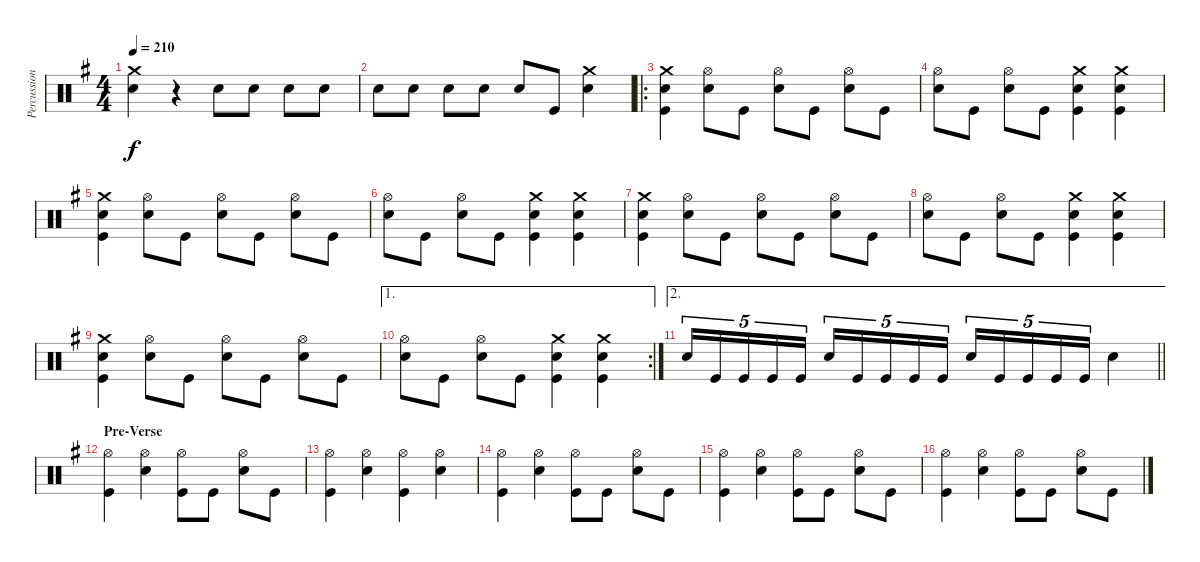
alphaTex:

\track ("Percussion" "Percussion") {instrument percussion}
\staff {score}
\articulation defaults
\ts (4 4)
\tempo 210
\clef neutral
\ks g
("Crash medium (hit)" "Snare (hit) 2").4{dy f} r.4 "Snare (hit) 2".8 "Snare (hit) 2".8 "Snare (hit) 2".8 "Snare (hit) 2".8 |
"Snare (hit) 2".8 "Snare (hit) 2".8 "Snare (hit) 2".8 "Snare (hit) 2".8 "Snare (hit) 2".8 "Kick (hit)".8 ("Crash medium (hit)" "Snare (hit) 2").4 |
\ro
("Crash medium (hit)" "Snare (hit) 2" "Kick (hit)").4 ("Hi-Hat (open)" "Snare (hit) 2").8 "Kick (hit)".8 ("Hi-Hat (open)" "Snare (hit) 2").8 "Kick (hit)".8 ("Hi-Hat (open)" "Snare (hit) 2").8 "Kick (hit)".8 |
("Hi-Hat (open)" "Snare (hit) 2").8 "Kick (hit)".8 ("Hi-Hat (open)" "Snare (hit) 2").8 "Kick (hit)".8 ("Crash medium (hit)" "Snare (hit) 2" "Kick (hit)").4 ("Crash medium (hit)" "Snare (hit) 2" "Kick (hit)").4 |
("Crash medium (hit)" "Snare (hit) 2" "Kick (hit)").4 ("Hi-Hat (open)" "Snare (hit) 2").8 "Kick (hit)".8 ("Hi-Hat (open)" "Snare (hit) 2").8 "Kick (hit)".8 ("Hi-Hat (open)" "Snare (hit) 2").8 "Kick (hit)".8 |
("Hi-Hat (open)" "Snare (hit) 2").8 "Kick (hit)".8 ("Hi-Hat (open)" "Snare (hit) 2").8 "Kick (hit)".8 ("Crash medium (hit)" "Snare (hit) 2" "Kick (hit)").4 ("Crash medium (hit)" "Snare (hit) 2" "Kick (hit)").4 |
("Crash medium (hit)" "Snare (hit) 2" "Kick (hit)").4 ("Hi-Hat (open)" "Snare (hit) 2").8 "Kick (hit)".8 ("Hi-Hat (open)" "Snare (hit) 2").8 "Kick (hit)".8 ("Hi-Hat (open)" "Snare (hit) 2").8 "Kick (hit)".8 |
("Hi-Hat (open)" "Snare (hit) 2").8 "Kick (hit)".8 ("Hi-Hat (open)" "Snare (hit) 2").8 "Kick (hit)".8 ("Crash medium (hit)" "Snare (hit) 2" "Kick (hit)").4 ("Crash medium (hit)" "Snare (hit) 2" "Kick (hit)").4 |
("Crash medium (hit)" "Snare (hit) 2" "Kick (hit)").4 ("Hi-Hat (open)" "Snare (hit) 2").8 "Kick (hit)".8 ("Hi-Hat (open)" "Snare (hit) 2").8 "Kick (hit)".8 ("Hi-Hat (open)" "Snare (hit) 2").8 "Kick (hit)".8 |
\ae 1
\rc 2
("Hi-Hat (open)" "Snare (hit) 2").8 "Kick (hit)".8 ("Hi-Hat (open)" "Snare (hit) 2").8 "Kick (hit)".8 ("Crash medium (hit)" "Snare (hit) 2" "Kick (hit)").4 ("Crash medium (hit)" "Snare (hit) 2" "Kick (hit)").4 |
\ae 2
\barLineRight lightlight "Snare (hit) 2".16{tu (5 4)} "Kick (hit)".16{tu (5 4)} "Kick (hit)".16{tu (5 4)} "Kick (hit)".16{tu (5 4)} "Kick (hit)".16{tu (5 4)} "Snare (hit) 2".16{tu (5 4)} "Kick (hit)".16{tu (5 4)} "Kick (hit)".16{tu (5 4)} "Kick (hit)".16{tu (5 4)} "Kick (hit)".16{tu (5 4)} "Snare (hit) 2".16{tu (5 4)} "Kick (hit)".16{tu (5 4)} "Kick (hit)".16{tu (5 4)} "Kick (hit)".16{tu (5 4)} "Kick (hit)".16{tu (5 4)} "Snare (hit) 2".4
|
\section ("" "Pre-Verse")
("Hi-Hat (open)" "Kick (hit)").4 ("Hi-Hat (open)" "Snare (hit) 2").4 ("Hi-Hat (open)" "Kick (hit)").8 "Kick (hit)".8 ("Hi-Hat (open)" "Snare (hit) 2").8 "Kick (hit)".8 |
("Hi-Hat (open)" "Kick (hit)").4 ("Hi-Hat (open)" "Snare (hit) 2").4 ("Hi-Hat (open)" "Kick (hit)").4 ("Hi-Hat (open)" "Snare (hit) 2").4 |
("Hi-Hat (open)" "Kick (hit)").4 ("Hi-Hat (open)" "Snare (hit) 2").4 ("Hi-Hat (open)" "Kick (hit)").8 "Kick (hit)".8 ("Hi-Hat (open)" "Snare (hit) 2").8 "Kick (hit)".8 |
("Hi-Hat (open)" "Kick (hit)").4 ("Hi-Hat (open)" "Snare (hit) 2").4 ("Hi-Hat (open)" "Kick (hit)").8 "Kick (hit)".8 ("Hi-Hat (open)" "Snare (hit) 2").8 "Kick (hit)".8 |
("Hi-Hat (open)" "Kick (hit)").4 ("Hi-Hat (open)" "Snare (hit) 2").4 ("Hi-Hat (open)" "Kick (hit)").8 "Kick (hit)".8 ("Hi-Hat (open)" "Snare (hit) 2").8 "Kick (hit)".8
